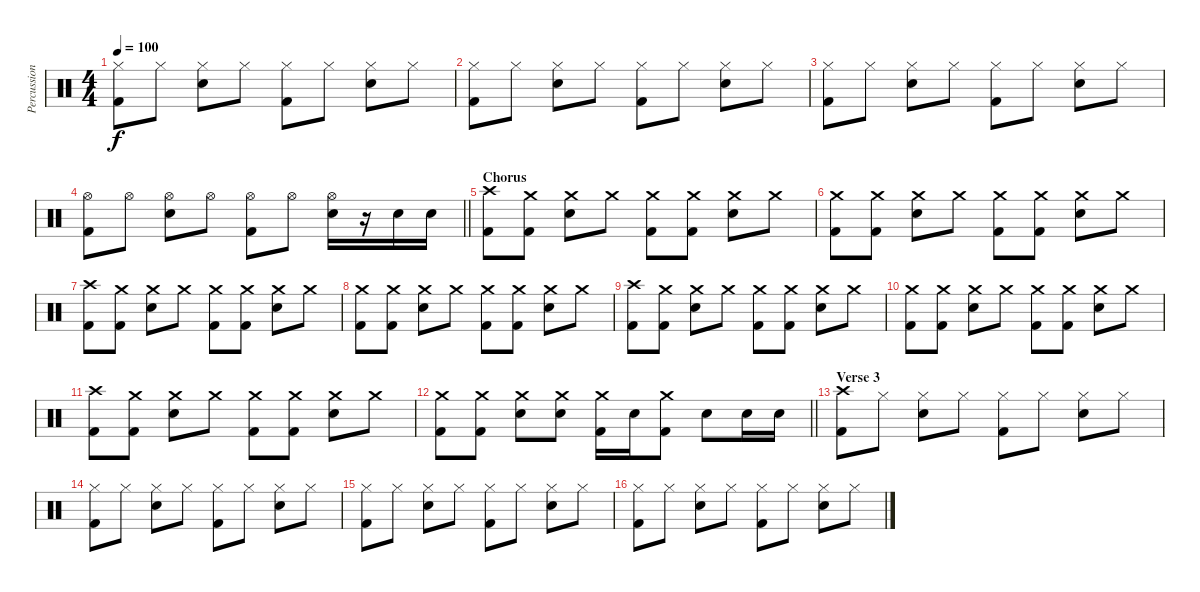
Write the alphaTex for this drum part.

\track ("Percussion" "Percussion") {instrument percussion}
\staff {score}
\articulation defaults
\ts (4 4)
\tempo 100
\clef neutral
\ks c
("Hi-Hat (closed)" "Kick (hit) 2").8{dy f} "Hi-Hat (closed)".8 ("Hi-Hat (closed)" "Snare (hit) 2").8 "Hi-Hat (closed)".8 ("Hi-Hat (closed)" "Kick (hit) 2").8 "Hi-Hat (closed)".8 ("Hi-Hat (closed)" "Snare (hit) 2").8 "Hi-Hat (closed)".8 |
("Hi-Hat (closed)" "Kick (hit) 2").8 "Hi-Hat (closed)".8 ("Hi-Hat (closed)" "Snare (hit) 2").8 "Hi-Hat (closed)".8 ("Hi-Hat (closed)" "Kick (hit) 2").8 "Hi-Hat (closed)".8 ("Hi-Hat (closed)" "Snare (hit) 2").8 "Hi-Hat (closed)".8 |
("Hi-Hat (closed)" "Kick (hit) 2").8 "Hi-Hat (closed)".8 ("Hi-Hat (closed)" "Snare (hit) 2").8 "Hi-Hat (closed)".8 ("Hi-Hat (closed)" "Kick (hit) 2").8 "Hi-Hat (closed)".8 ("Hi-Hat (closed)" "Snare (hit) 2").8 "Hi-Hat (closed)".8 |
\barLineRight lightlight
("Hi-Hat (open)" "Kick (hit) 2").8 "Hi-Hat (open)".8 ("Hi-Hat (open)" "Snare (hit) 2").8 "Hi-Hat (open)".8 ("Hi-Hat (open)" "Kick (hit) 2").8 "Hi-Hat (open)".8 ("Hi-Hat (open)" "Snare (hit) 2").16 r.16 "Snare (hit) 2".16 "Snare (hit) 2".16 |
\section ("" "Chorus")
("Kick (hit) 2" "Crash high (hit)").8 ("Kick (hit) 2" "Crash medium (hit)").8 ("Snare (hit) 2" "Crash medium (hit)").8 "Crash medium (hit)".8 ("Kick (hit) 2" "Crash medium (hit)").8 ("Kick (hit) 2" "Crash medium (hit)").8 ("Snare (hit) 2" "Crash medium (hit)").8 "Crash medium (hit)".8 |
("Kick (hit) 2" "Crash medium (hit)").8 ("Kick (hit) 2" "Crash medium (hit)").8 ("Snare (hit) 2" "Crash medium (hit)").8 "Crash medium (hit)".8 ("Kick (hit) 2" "Crash medium (hit)").8 ("Kick (hit) 2" "Crash medium (hit)").8 ("Snare (hit) 2" "Crash medium (hit)").8 "Crash medium (hit)".8 |
("Kick (hit) 2" "Crash high (hit)").8 ("Kick (hit) 2" "Crash medium (hit)").8 ("Snare (hit) 2" "Crash medium (hit)").8 "Crash medium (hit)".8 ("Kick (hit) 2" "Crash medium (hit)").8 ("Kick (hit) 2" "Crash medium (hit)").8 ("Snare (hit) 2" "Crash medium (hit)").8 "Crash medium (hit)".8 |
("Kick (hit) 2" "Crash medium (hit)").8 ("Kick (hit) 2" "Crash medium (hit)").8 ("Snare (hit) 2" "Crash medium (hit)").8 "Crash medium (hit)".8 ("Kick (hit) 2" "Crash medium (hit)").8 ("Kick (hit) 2" "Crash medium (hit)").8 ("Snare (hit) 2" "Crash medium (hit)").8 "Crash medium (hit)".8 |
("Kick (hit) 2" "Crash high (hit)").8 ("Kick (hit) 2" "Crash medium (hit)").8 ("Snare (hit) 2" "Crash medium (hit)").8 "Crash medium (hit)".8 ("Kick (hit) 2" "Crash medium (hit)").8 ("Kick (hit) 2" "Crash medium (hit)").8 ("Snare (hit) 2" "Crash medium (hit)").8 "Crash medium (hit)".8 |
("Kick (hit) 2" "Crash medium (hit)").8 ("Kick (hit) 2" "Crash medium (hit)").8 ("Snare (hit) 2" "Crash medium (hit)").8 "Crash medium (hit)".8 ("Kick (hit) 2" "Crash medium (hit)").8 ("Kick (hit) 2" "Crash medium (hit)").8 ("Snare (hit) 2" "Crash medium (hit)").8 "Crash medium (hit)".8 |
("Kick (hit) 2" "Crash high (hit)").8 ("Kick (hit) 2" "Crash medium (hit)").8 ("Snare (hit) 2" "Crash medium (hit)").8 "Crash medium (hit)".8 ("Kick (hit) 2" "Crash medium (hit)").8 ("Kick (hit) 2" "Crash medium (hit)").8 ("Snare (hit) 2" "Crash medium (hit)").8 "Crash medium (hit)".8 |
\barLineRight lightlight
("Kick (hit) 2" "Crash medium (hit)").8 ("Kick (hit) 2" "Crash medium (hit)").8 ("Snare (hit) 2" "Crash medium (hit)").8 ("Snare (hit) 2" "Crash medium (hit)").8 ("Kick (hit) 2" "Crash medium (hit)").16 "Snare (hit) 2".16 ("Kick (hit) 2" "Crash medium (hit)").8 "Snare (hit) 2".8 "Snare (hit) 2".16 "Snare (hit) 2".16 |
\section ("" "Verse 3")
("Crash high (hit)" "Kick (hit) 2").8 "Hi-Hat (closed)".8 ("Hi-Hat (closed)" "Snare (hit) 2").8 "Hi-Hat (closed)".8 ("Hi-Hat (closed)" "Kick (hit) 2").8 "Hi-Hat (closed)".8 ("Hi-Hat (closed)" "Snare (hit) 2").8 "Hi-Hat (closed)".8 |
("Hi-Hat (closed)" "Kick (hit) 2").8 "Hi-Hat (closed)".8 ("Hi-Hat (closed)" "Snare (hit) 2").8 "Hi-Hat (closed)".8 ("Hi-Hat (closed)" "Kick (hit) 2").8 "Hi-Hat (closed)".8 ("Hi-Hat (closed)" "Snare (hit) 2").8 "Hi-Hat (closed)".8 |
("Hi-Hat (closed)" "Kick (hit) 2").8 "Hi-Hat (closed)".8 ("Hi-Hat (closed)" "Snare (hit) 2").8 "Hi-Hat (closed)".8 ("Hi-Hat (closed)" "Kick (hit) 2").8 "Hi-Hat (closed)".8 ("Hi-Hat (closed)" "Snare (hit) 2").8 "Hi-Hat (closed)".8 |
("Hi-Hat (closed)" "Kick (hit) 2").8 "Hi-Hat (closed)".8 ("Hi-Hat (closed)" "Snare (hit) 2").8 "Hi-Hat (closed)".8 ("Hi-Hat (closed)" "Kick (hit) 2").8 "Hi-Hat (closed)".8 ("Hi-Hat (closed)" "Snare (hit) 2").8 "Hi-Hat (closed)".8
